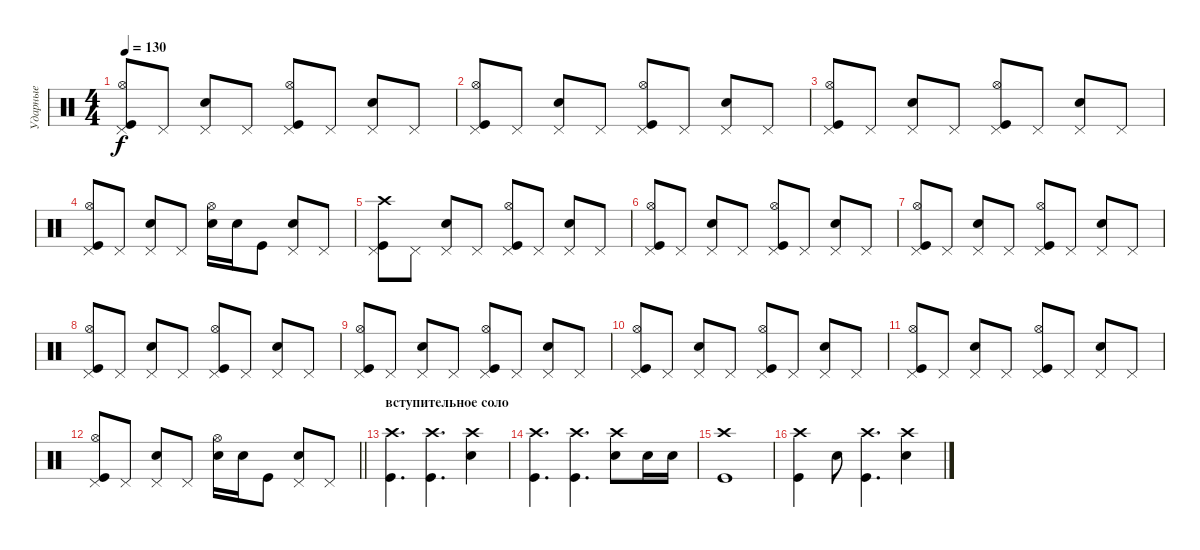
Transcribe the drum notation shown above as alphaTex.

\track ("Ударные" "Ударные") {instrument percussion}
\staff {score}
\articulation defaults
\ts (4 4)
\tempo 130
\clef neutral
\ks c
("Pedal Hi-Hat (hit)" "Hi-Hat (open)" "Kick (hit)").8{dy f} "Pedal Hi-Hat (hit)".8 ("Pedal Hi-Hat (hit)" "Snare (hit) 2").8 "Pedal Hi-Hat (hit)".8 ("Pedal Hi-Hat (hit)" "Hi-Hat (open)" "Kick (hit)").8 "Pedal Hi-Hat (hit)".8 ("Pedal Hi-Hat (hit)" "Snare (hit) 2").8 "Pedal Hi-Hat (hit)".8 |
("Pedal Hi-Hat (hit)" "Hi-Hat (open)" "Kick (hit)").8 "Pedal Hi-Hat (hit)".8 ("Pedal Hi-Hat (hit)" "Snare (hit) 2").8 "Pedal Hi-Hat (hit)".8 ("Pedal Hi-Hat (hit)" "Hi-Hat (open)" "Kick (hit)").8 "Pedal Hi-Hat (hit)".8 ("Pedal Hi-Hat (hit)" "Snare (hit) 2").8 "Pedal Hi-Hat (hit)".8 |
("Pedal Hi-Hat (hit)" "Hi-Hat (open)" "Kick (hit)").8 "Pedal Hi-Hat (hit)".8 ("Pedal Hi-Hat (hit)" "Snare (hit) 2").8 "Pedal Hi-Hat (hit)".8 ("Pedal Hi-Hat (hit)" "Hi-Hat (open)" "Kick (hit)").8 "Pedal Hi-Hat (hit)".8 ("Pedal Hi-Hat (hit)" "Snare (hit) 2").8 "Pedal Hi-Hat (hit)".8 |
("Pedal Hi-Hat (hit)" "Hi-Hat (open)" "Kick (hit)").8 "Pedal Hi-Hat (hit)".8 ("Pedal Hi-Hat (hit)" "Snare (hit) 2").8 "Pedal Hi-Hat (hit)".8 ("Snare (hit) 2" "Hi-Hat (open)").16 "Snare (hit) 2".16 "Kick (hit)".8 ("Snare (hit) 2" "Pedal Hi-Hat (hit)").8 "Pedal Hi-Hat (hit)".8 |
("Pedal Hi-Hat (hit)" "Crash high (hit)" "Kick (hit)").8 "Pedal Hi-Hat (hit)".8 ("Pedal Hi-Hat (hit)" "Snare (hit) 2").8 "Pedal Hi-Hat (hit)".8 ("Pedal Hi-Hat (hit)" "Hi-Hat (open)" "Kick (hit)").8 "Pedal Hi-Hat (hit)".8 ("Pedal Hi-Hat (hit)" "Snare (hit) 2").8 "Pedal Hi-Hat (hit)".8 |
("Pedal Hi-Hat (hit)" "Hi-Hat (open)" "Kick (hit)").8 "Pedal Hi-Hat (hit)".8 ("Pedal Hi-Hat (hit)" "Snare (hit) 2").8 "Pedal Hi-Hat (hit)".8 ("Pedal Hi-Hat (hit)" "Hi-Hat (open)" "Kick (hit)").8 "Pedal Hi-Hat (hit)".8 ("Pedal Hi-Hat (hit)" "Snare (hit) 2").8 "Pedal Hi-Hat (hit)".8 |
("Pedal Hi-Hat (hit)" "Hi-Hat (open)" "Kick (hit)").8 "Pedal Hi-Hat (hit)".8 ("Pedal Hi-Hat (hit)" "Snare (hit) 2").8 "Pedal Hi-Hat (hit)".8 ("Pedal Hi-Hat (hit)" "Hi-Hat (open)" "Kick (hit)").8 "Pedal Hi-Hat (hit)".8 ("Pedal Hi-Hat (hit)" "Snare (hit) 2").8 "Pedal Hi-Hat (hit)".8 |
("Pedal Hi-Hat (hit)" "Hi-Hat (open)" "Kick (hit)").8 "Pedal Hi-Hat (hit)".8 ("Pedal Hi-Hat (hit)" "Snare (hit) 2").8 "Pedal Hi-Hat (hit)".8 ("Pedal Hi-Hat (hit)" "Hi-Hat (open)" "Kick (hit)").8 "Pedal Hi-Hat (hit)".8 ("Pedal Hi-Hat (hit)" "Snare (hit) 2").8 "Pedal Hi-Hat (hit)".8 |
("Pedal Hi-Hat (hit)" "Hi-Hat (open)" "Kick (hit)").8 "Pedal Hi-Hat (hit)".8 ("Pedal Hi-Hat (hit)" "Snare (hit) 2").8 "Pedal Hi-Hat (hit)".8 ("Pedal Hi-Hat (hit)" "Hi-Hat (open)" "Kick (hit)").8 "Pedal Hi-Hat (hit)".8 ("Pedal Hi-Hat (hit)" "Snare (hit) 2").8 "Pedal Hi-Hat (hit)".8 |
("Pedal Hi-Hat (hit)" "Hi-Hat (open)" "Kick (hit)").8 "Pedal Hi-Hat (hit)".8 ("Pedal Hi-Hat (hit)" "Snare (hit) 2").8 "Pedal Hi-Hat (hit)".8 ("Pedal Hi-Hat (hit)" "Hi-Hat (open)" "Kick (hit)").8 "Pedal Hi-Hat (hit)".8 ("Pedal Hi-Hat (hit)" "Snare (hit) 2").8 "Pedal Hi-Hat (hit)".8 |
("Pedal Hi-Hat (hit)" "Hi-Hat (open)" "Kick (hit)").8 "Pedal Hi-Hat (hit)".8 ("Pedal Hi-Hat (hit)" "Snare (hit) 2").8 "Pedal Hi-Hat (hit)".8 ("Pedal Hi-Hat (hit)" "Hi-Hat (open)" "Kick (hit)").8 "Pedal Hi-Hat (hit)".8 ("Pedal Hi-Hat (hit)" "Snare (hit) 2").8 "Pedal Hi-Hat (hit)".8 |
\barLineRight lightlight
("Pedal Hi-Hat (hit)" "Hi-Hat (open)" "Kick (hit)").8 "Pedal Hi-Hat (hit)".8 ("Pedal Hi-Hat (hit)" "Snare (hit) 2").8 "Pedal Hi-Hat (hit)".8 ("Snare (hit) 2" "Hi-Hat (open)").16 "Snare (hit) 2".16 "Kick (hit)".8 ("Snare (hit) 2" "Pedal Hi-Hat (hit)").8 "Pedal Hi-Hat (hit)".8 |
\section ("" "вступительное соло")
("Kick (hit)" "Crash high (hit)").4{d} ("Kick (hit)" "Crash high (hit)").4{d} ("Snare (hit) 2" "Crash high (hit)").4 |
("Kick (hit)" "Crash high (hit)").4{d} ("Kick (hit)" "Crash high (hit)").4{d} ("Snare (hit) 2" "Crash high (hit)").8 "Snare (hit) 2".16 "Snare (hit) 2".16 |
("Kick (hit)" "Crash high (hit)").1 |
("Kick (hit)" "Crash high (hit)").4 "Snare (hit) 2".8 ("Kick (hit)" "Crash high (hit)").4{d} ("Snare (hit) 2" "Crash high (hit)").4
